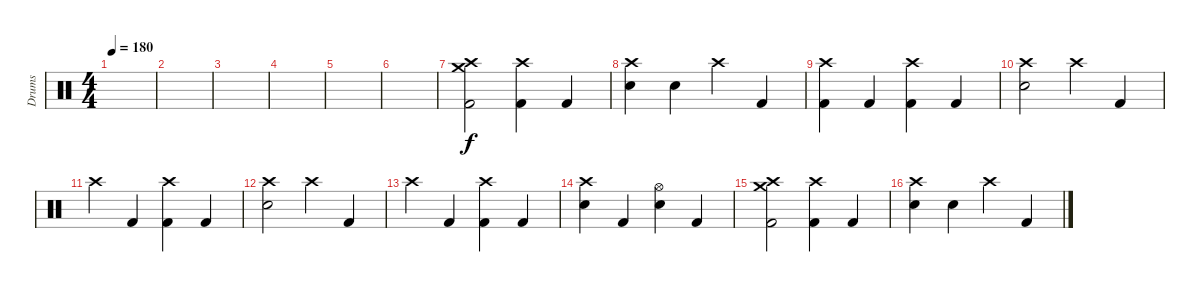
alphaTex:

\track ("Drums" "Drums") {instrument percussion}
\staff {score}
\articulation defaults
\ts (4 4)
\tempo 180
\clef neutral
\ks c
|
|
|
|
|
|
("Crash high (hit)" "Crash medium (hit)" "Kick (hit) 2").2 ("Crash high (hit)" "Kick (hit) 2").4 "Kick (hit) 2".4 |
("Crash high (hit)" "Electric Snare (hit)").4 "Electric Snare (hit)".4 "Crash high (hit)".4 "Kick (hit) 2".4 |
("Crash high (hit)" "Kick (hit) 2").4 "Kick (hit) 2".4 ("Crash high (hit)" "Kick (hit) 2").4 "Kick (hit) 2".4 |
("Crash high (hit)" "Electric Snare (hit)").2 "Crash high (hit)".4 "Kick (hit) 2".4 |
"Crash high (hit)".4 "Kick (hit) 2".4 ("Crash high (hit)" "Kick (hit) 2").4 "Kick (hit) 2".4 |
("Crash high (hit)" "Electric Snare (hit)").2 "Crash high (hit)".4 "Kick (hit) 2".4 |
"Crash high (hit)".4 "Kick (hit) 2".4 ("Crash high (hit)" "Kick (hit) 2").4 "Kick (hit) 2".4 |
("Crash high (hit)" "Electric Snare (hit)").4 "Kick (hit) 2".4 ("Hi-Hat (open)" "Electric Snare (hit)").4 "Kick (hit) 2".4 |
("Crash high (hit)" "Crash medium (hit)" "Kick (hit) 2").2 ("Crash high (hit)" "Kick (hit) 2").4 "Kick (hit) 2".4 |
("Crash high (hit)" "Electric Snare (hit)").4 "Electric Snare (hit)".4 "Crash high (hit)".4 "Kick (hit) 2".4
